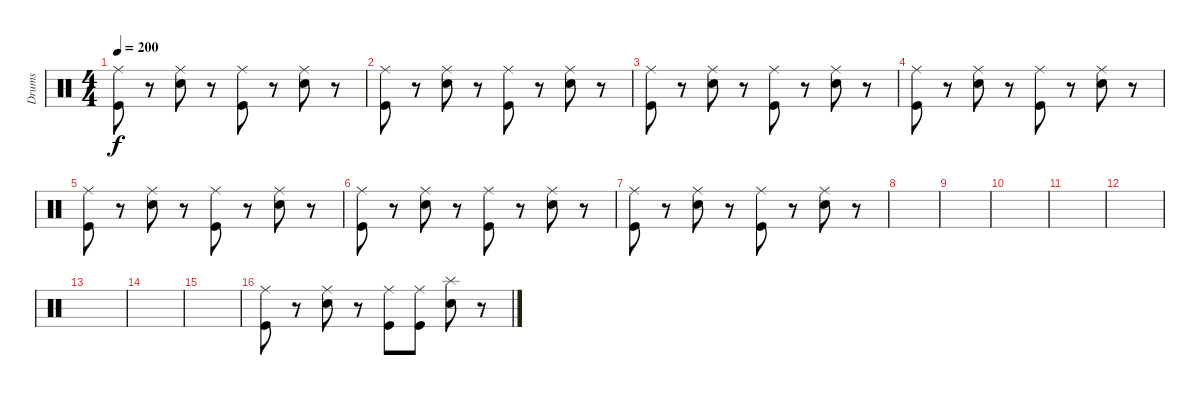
\track ("Drums" "Drums") {instrument percussion}
\staff {score}
\articulation defaults
\ts (4 4)
\tempo 200
\clef neutral
\ks c
("Ride (middle)" "Kick (hit)").8{dy f} r.8 ("Ride (middle)" "Snare (hit) 2").8 r.8 ("Ride (middle)" "Kick (hit)").8 r.8 ("Ride (middle)" "Snare (hit) 2").8 r.8 |
("Ride (middle)" "Kick (hit)").8 r.8 ("Ride (middle)" "Snare (hit) 2").8 r.8 ("Ride (middle)" "Kick (hit)").8 r.8 ("Ride (middle)" "Snare (hit) 2").8 r.8 |
("Ride (middle)" "Kick (hit)").8 r.8 ("Ride (middle)" "Snare (hit) 2").8 r.8 ("Ride (middle)" "Kick (hit)").8 r.8 ("Ride (middle)" "Snare (hit) 2").8 r.8 |
("Ride (middle)" "Kick (hit)").8 r.8 ("Ride (middle)" "Snare (hit) 2").8 r.8 ("Ride (middle)" "Kick (hit)").8 r.8 ("Ride (middle)" "Snare (hit) 2").8 r.8 |
("Ride (middle)" "Kick (hit)").8 r.8 ("Ride (middle)" "Snare (hit) 2").8 r.8 ("Ride (middle)" "Kick (hit)").8 r.8 ("Ride (middle)" "Snare (hit) 2").8 r.8 |
("Ride (middle)" "Kick (hit)").8 r.8 ("Ride (middle)" "Snare (hit) 2").8 r.8 ("Ride (middle)" "Kick (hit)").8 r.8 ("Ride (middle)" "Snare (hit) 2").8 r.8 |
("Ride (middle)" "Kick (hit)").8 r.8 ("Ride (middle)" "Snare (hit) 2").8 r.8 ("Ride (middle)" "Kick (hit)").8 r.8 ("Ride (middle)" "Snare (hit) 2").8 r.8 |
|
|
|
|
|
|
|
|
("Ride (middle)" "Kick (hit)").8 r.8 ("Ride (middle)" "Snare (hit) 2").8 r.8 ("Ride (middle)" "Kick (hit)").8 ("Ride (middle)" "Kick (hit)").8 ("Splash (hit)" "Snare (hit) 2").8 r.8
